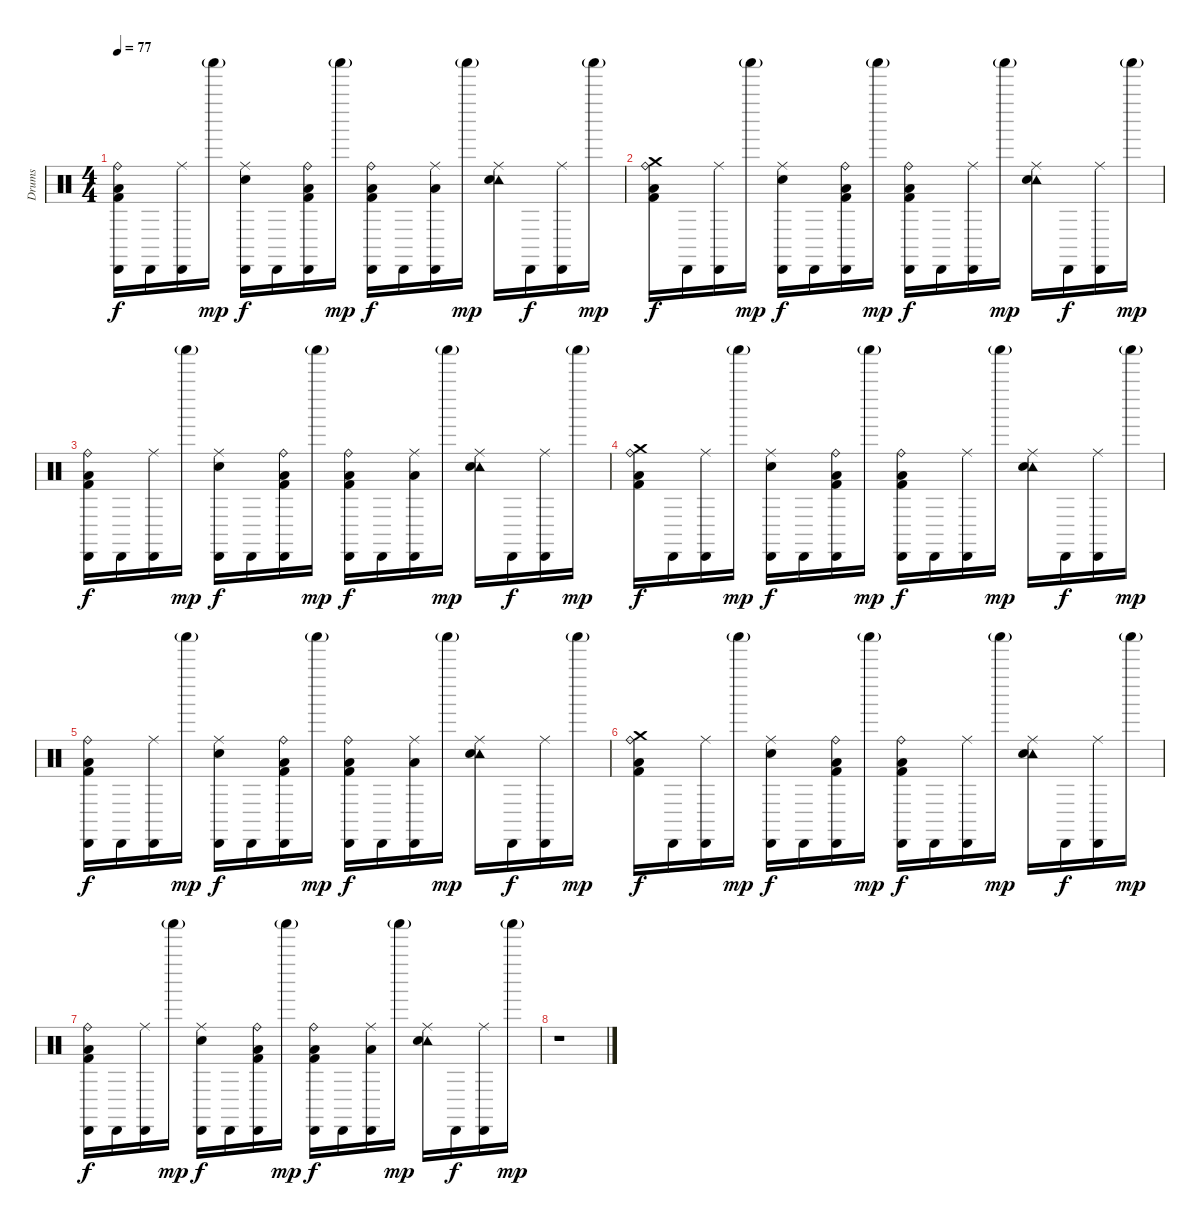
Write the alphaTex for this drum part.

\track ("Drums" "Drums") {instrument percussion}
\staff {score}
\articulation defaults
\ts (4 4)
\tempo 77
\clef neutral
\ks c
("Cabasa (hit)" "Ride (bell)" "Low Floor Tom (hit)" "Kick (hit) 2").16{dy f} "Cabasa (hit)".16 ("Cabasa (hit)" "Ride (middle)").16 "Shaker (hit)"{g}.16{dy mp} ("Cabasa (hit)" "Ride (middle)" "Snare (hit) 2").16{dy f} "Cabasa (hit)".16 ("Cabasa (hit)" "Ride (bell)" "Low Floor Tom (hit)" "Kick (hit) 2").16 "Shaker (hit)"{g}.16{dy mp} ("Cabasa (hit)" "Ride (bell)" "Low Floor Tom (hit)" "Kick (hit) 2").16{dy f} "Cabasa (hit)".16 ("Cabasa (hit)" "Ride (middle)" "Low Floor Tom (hit)").16 "Shaker (hit)"{g}.16{dy mp} ("Tambourine (hit)" "Ride (middle)" "Snare (hit) 2").16 "Cabasa (hit)".16{dy f} ("Cabasa (hit)" "Ride (middle)").16 "Shaker (hit)"{g}.16{dy mp} |
("Crash medium (hit)" "Ride (bell)" "Low Floor Tom (hit)" "Kick (hit) 2").16{dy f volume 7} "Cabasa (hit)".16 ("Cabasa (hit)" "Ride (middle)").16 "Shaker (hit)"{g}.16{dy mp} ("Cabasa (hit)" "Ride (middle)" "Snare (hit) 2").16{dy f} "Cabasa (hit)".16 ("Cabasa (hit)" "Ride (bell)" "Low Floor Tom (hit)" "Kick (hit) 2").16 "Shaker (hit)"{g}.16{dy mp} ("Cabasa (hit)" "Ride (bell)" "Low Floor Tom (hit)" "Kick (hit) 2").16{dy f} "Cabasa (hit)".16 ("Cabasa (hit)" "Ride (middle)").16 "Shaker (hit)"{g}.16{dy mp} ("Tambourine (hit)" "Ride (middle)" "Snare (hit) 2").16 "Cabasa (hit)".16{dy f} ("Cabasa (hit)" "Ride (middle)").16 "Shaker (hit)"{g}.16{dy mp} |
("Cabasa (hit)" "Ride (bell)" "Low Floor Tom (hit)" "Kick (hit) 2").16{dy f} "Cabasa (hit)".16 ("Cabasa (hit)" "Ride (middle)").16 "Shaker (hit)"{g}.16{dy mp} ("Cabasa (hit)" "Ride (middle)" "Snare (hit) 2").16{dy f} "Cabasa (hit)".16 ("Cabasa (hit)" "Ride (bell)" "Low Floor Tom (hit)" "Kick (hit) 2").16 "Shaker (hit)"{g}.16{dy mp} ("Cabasa (hit)" "Ride (bell)" "Low Floor Tom (hit)" "Kick (hit) 2").16{dy f} "Cabasa (hit)".16 ("Cabasa (hit)" "Ride (middle)" "Low Floor Tom (hit)").16 "Shaker (hit)"{g}.16{dy mp} ("Tambourine (hit)" "Ride (middle)" "Snare (hit) 2").16 "Cabasa (hit)".16{dy f} ("Cabasa (hit)" "Ride (middle)").16 "Shaker (hit)"{g}.16{dy mp} |
("Crash medium (hit)" "Ride (bell)" "Low Floor Tom (hit)" "Kick (hit) 2").16{dy f volume 4} "Cabasa (hit)".16 ("Cabasa (hit)" "Ride (middle)").16 "Shaker (hit)"{g}.16{dy mp} ("Cabasa (hit)" "Ride (middle)" "Snare (hit) 2").16{dy f} "Cabasa (hit)".16 ("Cabasa (hit)" "Ride (bell)" "Low Floor Tom (hit)" "Kick (hit) 2").16 "Shaker (hit)"{g}.16{dy mp} ("Cabasa (hit)" "Ride (bell)" "Low Floor Tom (hit)" "Kick (hit) 2").16{dy f} "Cabasa (hit)".16 ("Cabasa (hit)" "Ride (middle)").16 "Shaker (hit)"{g}.16{dy mp} ("Tambourine (hit)" "Ride (middle)" "Snare (hit) 2").16 "Cabasa (hit)".16{dy f} ("Cabasa (hit)" "Ride (middle)").16 "Shaker (hit)"{g}.16{dy mp} |
("Cabasa (hit)" "Ride (bell)" "Low Floor Tom (hit)" "Kick (hit) 2").16{dy f} "Cabasa (hit)".16 ("Cabasa (hit)" "Ride (middle)").16 "Shaker (hit)"{g}.16{dy mp} ("Cabasa (hit)" "Ride (middle)" "Snare (hit) 2").16{dy f} "Cabasa (hit)".16 ("Cabasa (hit)" "Ride (bell)" "Low Floor Tom (hit)" "Kick (hit) 2").16 "Shaker (hit)"{g}.16{dy mp} ("Cabasa (hit)" "Ride (bell)" "Low Floor Tom (hit)" "Kick (hit) 2").16{dy f} "Cabasa (hit)".16 ("Cabasa (hit)" "Ride (middle)" "Low Floor Tom (hit)").16 "Shaker (hit)"{g}.16{dy mp} ("Tambourine (hit)" "Ride (middle)" "Snare (hit) 2").16 "Cabasa (hit)".16{dy f} ("Cabasa (hit)" "Ride (middle)").16 "Shaker (hit)"{g}.16{dy mp} |
("Crash medium (hit)" "Ride (bell)" "Low Floor Tom (hit)" "Kick (hit) 2").16{dy f volume 0} "Cabasa (hit)".16 ("Cabasa (hit)" "Ride (middle)").16 "Shaker (hit)"{g}.16{dy mp} ("Cabasa (hit)" "Ride (middle)" "Snare (hit) 2").16{dy f} "Cabasa (hit)".16 ("Cabasa (hit)" "Ride (bell)" "Low Floor Tom (hit)" "Kick (hit) 2").16 "Shaker (hit)"{g}.16{dy mp} ("Cabasa (hit)" "Ride (bell)" "Low Floor Tom (hit)" "Kick (hit) 2").16{dy f} "Cabasa (hit)".16 ("Cabasa (hit)" "Ride (middle)").16 "Shaker (hit)"{g}.16{dy mp} ("Tambourine (hit)" "Ride (middle)" "Snare (hit) 2").16 "Cabasa (hit)".16{dy f} ("Cabasa (hit)" "Ride (middle)").16 "Shaker (hit)"{g}.16{dy mp} |
("Cabasa (hit)" "Ride (bell)" "Low Floor Tom (hit)" "Kick (hit) 2").16{dy f} "Cabasa (hit)".16 ("Cabasa (hit)" "Ride (middle)").16 "Shaker (hit)"{g}.16{dy mp} ("Cabasa (hit)" "Ride (middle)" "Snare (hit) 2").16{dy f} "Cabasa (hit)".16 ("Cabasa (hit)" "Ride (bell)" "Low Floor Tom (hit)" "Kick (hit) 2").16 "Shaker (hit)"{g}.16{dy mp} ("Cabasa (hit)" "Ride (bell)" "Low Floor Tom (hit)" "Kick (hit) 2").16{dy f} "Cabasa (hit)".16 ("Cabasa (hit)" "Ride (middle)" "Low Floor Tom (hit)").16 "Shaker (hit)"{g}.16{dy mp} ("Tambourine (hit)" "Ride (middle)" "Snare (hit) 2").16 "Cabasa (hit)".16{dy f} ("Cabasa (hit)" "Ride (middle)").16 "Shaker (hit)"{g}.16{dy mp} |
r.1
